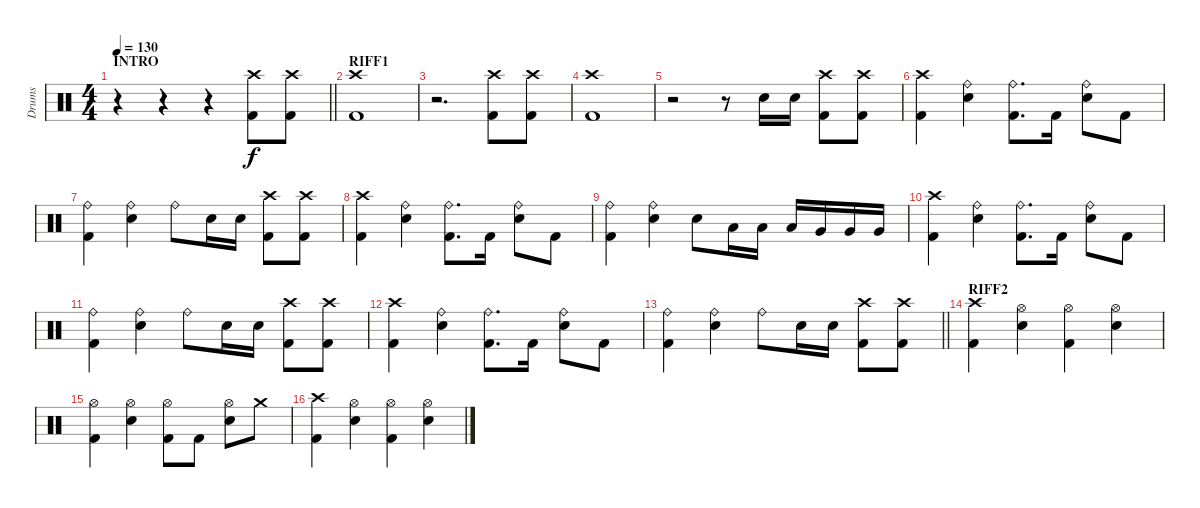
\track ("Drums" "Drums") {instrument percussion}
\staff {score}
\articulation defaults
\ts (4 4)
\section ("" "INTRO")
\tempo 130
\clef neutral
\barLineRight lightlight
\ks c
r.4{dy f} r.4 r.4 ("Crash high (hit)" "Kick (hit) 2").8 ("Crash high (hit)" "Kick (hit) 2").8 |
\section ("" "RIFF1")
("Crash high (hit)" "Kick (hit) 2").1 |
r.2{d} ("Crash high (hit)" "Kick (hit) 2").8 ("Crash high (hit)" "Kick (hit) 2").8 |
("Crash high (hit)" "Kick (hit) 2").1 |
r.2 r.8 "Electric Snare (hit)".16 "Electric Snare (hit)".16 ("Crash high (hit)" "Kick (hit) 2").8 ("Crash high (hit)" "Kick (hit) 2").8 |
("Crash high (hit)" "Kick (hit) 2").4 ("Ride (bell)" "Electric Snare (hit)").4 ("Ride (bell)" "Kick (hit) 2").8{d} "Kick (hit) 2".16 ("Ride (bell)" "Electric Snare (hit)").8 "Kick (hit) 2".8 |
("Ride (bell)" "Kick (hit) 2").4 ("Ride (bell)" "Electric Snare (hit)").4 "Ride (bell)".8 "Electric Snare (hit)".16 "Electric Snare (hit)".16 ("Crash high (hit)" "Kick (hit) 2").8 ("Crash high (hit)" "Kick (hit) 2").8 |
("Crash high (hit)" "Kick (hit) 2").4 ("Ride (bell)" "Electric Snare (hit)").4 ("Ride (bell)" "Kick (hit) 2").8{d} "Kick (hit) 2".16 ("Ride (bell)" "Electric Snare (hit)").8 "Kick (hit) 2".8 |
("Ride (bell)" "Kick (hit) 2").4 ("Ride (bell)" "Electric Snare (hit)").4 "Electric Snare (hit)".8 "Low Tom (hit)".16 "Low Tom (hit)".16 "Low Tom (hit)".16 "Very Low Tom (hit)".16 "Very Low Tom (hit)".16 "Very Low Tom (hit)".16 |
("Crash high (hit)" "Kick (hit) 2").4 ("Ride (bell)" "Electric Snare (hit)").4 ("Ride (bell)" "Kick (hit) 2").8{d} "Kick (hit) 2".16 ("Ride (bell)" "Electric Snare (hit)").8 "Kick (hit) 2".8 |
("Ride (bell)" "Kick (hit) 2").4 ("Ride (bell)" "Electric Snare (hit)").4 "Ride (bell)".8 "Electric Snare (hit)".16 "Electric Snare (hit)".16 ("Crash high (hit)" "Kick (hit) 2").8 ("Crash high (hit)" "Kick (hit) 2").8 |
("Crash high (hit)" "Kick (hit) 2").4 ("Ride (bell)" "Electric Snare (hit)").4 ("Ride (bell)" "Kick (hit) 2").8{d} "Kick (hit) 2".16 ("Ride (bell)" "Electric Snare (hit)").8 "Kick (hit) 2".8 |
\barLineRight lightlight
("Ride (bell)" "Kick (hit) 2").4 ("Ride (bell)" "Electric Snare (hit)").4 "Ride (bell)".8 "Electric Snare (hit)".16 "Electric Snare (hit)".16 ("Crash high (hit)" "Kick (hit) 2").8 ("Crash high (hit)" "Kick (hit) 2").8 |
\section ("" "RIFF2")
("Crash high (hit)" "Kick (hit) 2").4 ("Hi-Hat (open)" "Electric Snare (hit)").4 ("Hi-Hat (open)" "Kick (hit) 2").4 ("Hi-Hat (open)" "Electric Snare (hit)").4 |
("Hi-Hat (open)" "Kick (hit) 2").4 ("Hi-Hat (open)" "Electric Snare (hit)").4 ("Hi-Hat (open)" "Kick (hit) 2").8 "Kick (hit) 2".8 ("Hi-Hat (open)" "Electric Snare (hit)").8 "Crash medium (hit)".8 |
("Crash high (hit)" "Kick (hit) 2").4 ("Hi-Hat (open)" "Electric Snare (hit)").4 ("Hi-Hat (open)" "Kick (hit) 2").4 ("Hi-Hat (open)" "Electric Snare (hit)").4
